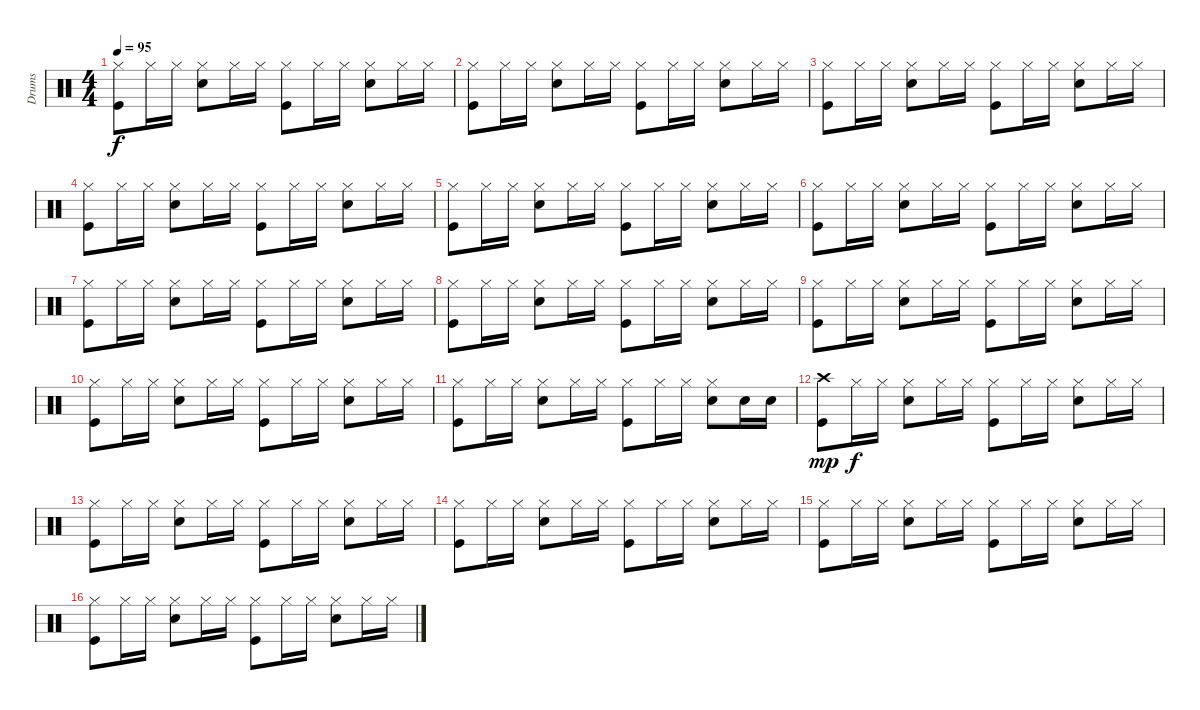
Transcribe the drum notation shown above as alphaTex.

\track ("Drums" "Drums") {instrument percussion}
\staff {score}
\articulation defaults
\ts (4 4)
\tempo 95
\clef neutral
\ks c
("Hi-Hat (closed)" "Kick (hit)").8{dy f} "Hi-Hat (closed)".16 "Hi-Hat (closed)".16 ("Hi-Hat (closed)" "Snare (hit) 2").8 "Hi-Hat (closed)".16 "Hi-Hat (closed)".16 ("Hi-Hat (closed)" "Kick (hit)").8 "Hi-Hat (closed)".16 "Hi-Hat (closed)".16 ("Hi-Hat (closed)" "Snare (hit) 2").8 "Hi-Hat (closed)".16 "Hi-Hat (closed)".16 |
("Hi-Hat (closed)" "Kick (hit)").8 "Hi-Hat (closed)".16 "Hi-Hat (closed)".16 ("Hi-Hat (closed)" "Snare (hit) 2").8 "Hi-Hat (closed)".16 "Hi-Hat (closed)".16 ("Hi-Hat (closed)" "Kick (hit)").8 "Hi-Hat (closed)".16 "Hi-Hat (closed)".16 ("Hi-Hat (closed)" "Snare (hit) 2").8 "Hi-Hat (closed)".16 "Hi-Hat (closed)".16 |
("Hi-Hat (closed)" "Kick (hit)").8 "Hi-Hat (closed)".16 "Hi-Hat (closed)".16 ("Hi-Hat (closed)" "Snare (hit) 2").8 "Hi-Hat (closed)".16 "Hi-Hat (closed)".16 ("Hi-Hat (closed)" "Kick (hit)").8 "Hi-Hat (closed)".16 "Hi-Hat (closed)".16 ("Hi-Hat (closed)" "Snare (hit) 2").8 "Hi-Hat (closed)".16 "Hi-Hat (closed)".16 |
("Hi-Hat (closed)" "Kick (hit)").8 "Hi-Hat (closed)".16 "Hi-Hat (closed)".16 ("Hi-Hat (closed)" "Snare (hit) 2").8 "Hi-Hat (closed)".16 "Hi-Hat (closed)".16 ("Hi-Hat (closed)" "Kick (hit)").8 "Hi-Hat (closed)".16 "Hi-Hat (closed)".16 ("Hi-Hat (closed)" "Snare (hit) 2").8 "Hi-Hat (closed)".16 "Hi-Hat (closed)".16 |
("Hi-Hat (closed)" "Kick (hit)").8 "Hi-Hat (closed)".16 "Hi-Hat (closed)".16 ("Hi-Hat (closed)" "Snare (hit) 2").8 "Hi-Hat (closed)".16 "Hi-Hat (closed)".16 ("Hi-Hat (closed)" "Kick (hit)").8 "Hi-Hat (closed)".16 "Hi-Hat (closed)".16 ("Hi-Hat (closed)" "Snare (hit) 2").8 "Hi-Hat (closed)".16 "Hi-Hat (closed)".16 |
("Hi-Hat (closed)" "Kick (hit)").8 "Hi-Hat (closed)".16 "Hi-Hat (closed)".16 ("Hi-Hat (closed)" "Snare (hit) 2").8 "Hi-Hat (closed)".16 "Hi-Hat (closed)".16 ("Hi-Hat (closed)" "Kick (hit)").8 "Hi-Hat (closed)".16 "Hi-Hat (closed)".16 ("Hi-Hat (closed)" "Snare (hit) 2").8 "Hi-Hat (closed)".16 "Hi-Hat (closed)".16 |
("Hi-Hat (closed)" "Kick (hit)").8 "Hi-Hat (closed)".16 "Hi-Hat (closed)".16 ("Hi-Hat (closed)" "Snare (hit) 2").8 "Hi-Hat (closed)".16 "Hi-Hat (closed)".16 ("Hi-Hat (closed)" "Kick (hit)").8 "Hi-Hat (closed)".16 "Hi-Hat (closed)".16 ("Hi-Hat (closed)" "Snare (hit) 2").8 "Hi-Hat (closed)".16 "Hi-Hat (closed)".16 |
("Hi-Hat (closed)" "Kick (hit)").8 "Hi-Hat (closed)".16 "Hi-Hat (closed)".16 ("Hi-Hat (closed)" "Snare (hit) 2").8 "Hi-Hat (closed)".16 "Hi-Hat (closed)".16 ("Hi-Hat (closed)" "Kick (hit)").8 "Hi-Hat (closed)".16 "Hi-Hat (closed)".16 ("Hi-Hat (closed)" "Snare (hit) 2").8 "Hi-Hat (closed)".16 "Hi-Hat (closed)".16 |
("Hi-Hat (closed)" "Kick (hit)").8 "Hi-Hat (closed)".16 "Hi-Hat (closed)".16 ("Hi-Hat (closed)" "Snare (hit) 2").8 "Hi-Hat (closed)".16 "Hi-Hat (closed)".16 ("Hi-Hat (closed)" "Kick (hit)").8 "Hi-Hat (closed)".16 "Hi-Hat (closed)".16 ("Hi-Hat (closed)" "Snare (hit) 2").8 "Hi-Hat (closed)".16 "Hi-Hat (closed)".16 |
("Hi-Hat (closed)" "Kick (hit)").8 "Hi-Hat (closed)".16 "Hi-Hat (closed)".16 ("Hi-Hat (closed)" "Snare (hit) 2").8 "Hi-Hat (closed)".16 "Hi-Hat (closed)".16 ("Hi-Hat (closed)" "Kick (hit)").8 "Hi-Hat (closed)".16 "Hi-Hat (closed)".16 ("Hi-Hat (closed)" "Snare (hit) 2").8 "Hi-Hat (closed)".16 "Hi-Hat (closed)".16 |
("Hi-Hat (closed)" "Kick (hit)").8 "Hi-Hat (closed)".16 "Hi-Hat (closed)".16 ("Hi-Hat (closed)" "Snare (hit) 2").8 "Hi-Hat (closed)".16 "Hi-Hat (closed)".16 ("Hi-Hat (closed)" "Kick (hit)").8 "Hi-Hat (closed)".16 "Hi-Hat (closed)".16 ("Hi-Hat (closed)" "Snare (hit) 2").8 "Snare (hit) 2".16 "Snare (hit) 2".16 |
("Crash high (hit)" "Kick (hit)").8{dy mp} "Hi-Hat (closed)".16{dy f} "Hi-Hat (closed)".16 ("Hi-Hat (closed)" "Snare (hit) 2").8 "Hi-Hat (closed)".16 "Hi-Hat (closed)".16 ("Hi-Hat (closed)" "Kick (hit)").8 "Hi-Hat (closed)".16 "Hi-Hat (closed)".16 ("Hi-Hat (closed)" "Snare (hit) 2").8 "Hi-Hat (closed)".16 "Hi-Hat (closed)".16 |
("Hi-Hat (closed)" "Kick (hit)").8 "Hi-Hat (closed)".16 "Hi-Hat (closed)".16 ("Hi-Hat (closed)" "Snare (hit) 2").8 "Hi-Hat (closed)".16 "Hi-Hat (closed)".16 ("Hi-Hat (closed)" "Kick (hit)").8 "Hi-Hat (closed)".16 "Hi-Hat (closed)".16 ("Hi-Hat (closed)" "Snare (hit) 2").8 "Hi-Hat (closed)".16 "Hi-Hat (closed)".16 |
("Hi-Hat (closed)" "Kick (hit)").8 "Hi-Hat (closed)".16 "Hi-Hat (closed)".16 ("Hi-Hat (closed)" "Snare (hit) 2").8 "Hi-Hat (closed)".16 "Hi-Hat (closed)".16 ("Hi-Hat (closed)" "Kick (hit)").8 "Hi-Hat (closed)".16 "Hi-Hat (closed)".16 ("Hi-Hat (closed)" "Snare (hit) 2").8 "Hi-Hat (closed)".16 "Hi-Hat (closed)".16 |
("Hi-Hat (closed)" "Kick (hit)").8 "Hi-Hat (closed)".16 "Hi-Hat (closed)".16 ("Hi-Hat (closed)" "Snare (hit) 2").8 "Hi-Hat (closed)".16 "Hi-Hat (closed)".16 ("Hi-Hat (closed)" "Kick (hit)").8 "Hi-Hat (closed)".16 "Hi-Hat (closed)".16 ("Hi-Hat (closed)" "Snare (hit) 2").8 "Hi-Hat (closed)".16 "Hi-Hat (closed)".16 |
("Hi-Hat (closed)" "Kick (hit)").8 "Hi-Hat (closed)".16 "Hi-Hat (closed)".16 ("Hi-Hat (closed)" "Snare (hit) 2").8 "Hi-Hat (closed)".16 "Hi-Hat (closed)".16 ("Hi-Hat (closed)" "Kick (hit)").8 "Hi-Hat (closed)".16 "Hi-Hat (closed)".16 ("Hi-Hat (closed)" "Snare (hit) 2").8 "Hi-Hat (closed)".16 "Hi-Hat (closed)".16
